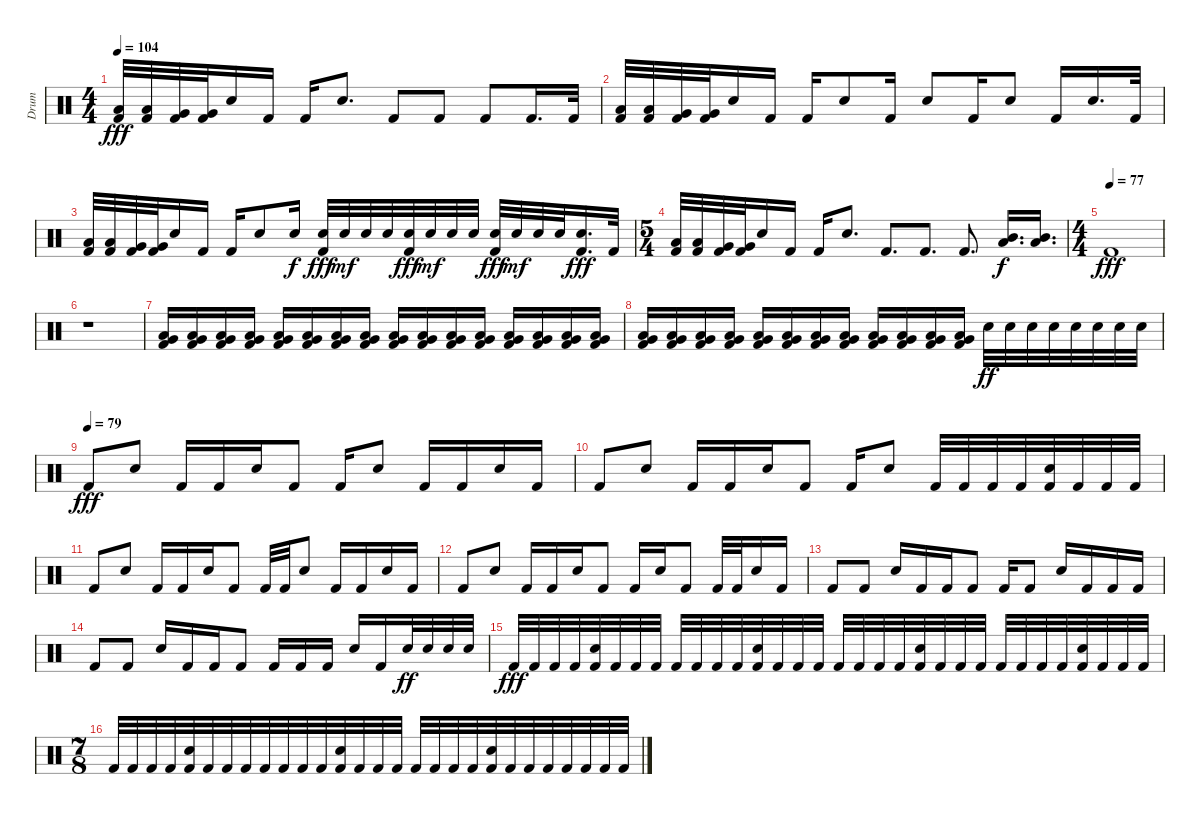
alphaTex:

\track ("Drum" "Drum") {instrument percussion}
\staff {score}
\articulation defaults
\ts (4 4)
\tempo 104
\clef neutral
\ks c
("Low Tom (hit)" "Kick (hit) 2").32{dy fff} ("Low Tom (hit)" "Kick (hit) 2").32 ("Very Low Tom (hit)" "Kick (hit) 2").32 ("Very Low Tom (hit)" "Kick (hit) 2").32 "Electric Snare (hit)".16 "Kick (hit) 2".16 "Kick (hit) 2".16 "Electric Snare (hit)".8{d} "Kick (hit) 2".8 "Kick (hit) 2".8 "Kick (hit) 2".8 "Kick (hit) 2".16{d} "Kick (hit) 2".32 |
("Low Tom (hit)" "Kick (hit) 2").32 ("Low Tom (hit)" "Kick (hit) 2").32 ("Very Low Tom (hit)" "Kick (hit) 2").32 ("Very Low Tom (hit)" "Kick (hit) 2").32 "Electric Snare (hit)".16 "Kick (hit) 2".16 "Kick (hit) 2".16 "Electric Snare (hit)".8 "Kick (hit) 2".16 "Electric Snare (hit)".8 "Kick (hit) 2".16 "Electric Snare (hit)".8 "Kick (hit) 2".16 "Electric Snare (hit)".16{d} "Kick (hit) 2".32 |
("Low Tom (hit)" "Kick (hit) 2").32 ("Low Tom (hit)" "Kick (hit) 2").32 ("Very Low Tom (hit)" "Kick (hit) 2").32 ("Very Low Tom (hit)" "Kick (hit) 2").32 "Electric Snare (hit)".16 "Kick (hit) 2".16 "Kick (hit) 2".16 "Electric Snare (hit)".8 "Electric Snare (hit)".16{dy f} ("Electric Snare (hit)" "Kick (hit) 2").32{dy fff} "Electric Snare (hit)".32{dy mf} "Electric Snare (hit)".32 "Electric Snare (hit)".32 ("Electric Snare (hit)" "Kick (hit) 2").32{dy fff} "Electric Snare (hit)".32{dy mf} "Electric Snare (hit)".32 "Electric Snare (hit)".32 ("Electric Snare (hit)" "Kick (hit) 2").32{dy fff} "Electric Snare (hit)".32{dy mf} "Electric Snare (hit)".32 "Electric Snare (hit)".32 ("Electric Snare (hit)" "Kick (hit) 2").16{d dy fff} "Kick (hit) 2".32 |
\ts (5 4)
("Low Tom (hit)" "Kick (hit) 2").32 ("Low Tom (hit)" "Kick (hit) 2").32 ("Very Low Tom (hit)" "Kick (hit) 2").32 ("Very Low Tom (hit)" "Kick (hit) 2").32 "Electric Snare (hit)".16 "Kick (hit) 2".16 "Kick (hit) 2".16 "Electric Snare (hit)".8{d} "Kick (hit) 2".8{d} "Kick (hit) 2".8{d} "Kick (hit) 2".8{d} ("Mid Tom (hit)" "Low Tom (hit)").16{d dy f} ("Mid Tom (hit)" "Low Tom (hit)").16{d} |
\ts (4 4)
\tempo (77)
"Kick (hit) 2".1{dy fff} |
r.1 |
("Low Tom (hit)" "Very Low Tom (hit)" "Kick (hit) 2").16 ("Low Tom (hit)" "Very Low Tom (hit)" "Kick (hit) 2").16 ("Low Tom (hit)" "Very Low Tom (hit)" "Kick (hit) 2").16 ("Low Tom (hit)" "Very Low Tom (hit)" "Kick (hit) 2").16 ("Low Tom (hit)" "Very Low Tom (hit)" "Kick (hit) 2").16 ("Low Tom (hit)" "Very Low Tom (hit)" "Kick (hit) 2").16 ("Low Tom (hit)" "Very Low Tom (hit)" "Kick (hit) 2").16 ("Low Tom (hit)" "Very Low Tom (hit)" "Kick (hit) 2").16 ("Low Tom (hit)" "Very Low Tom (hit)" "Kick (hit) 2").16 ("Low Tom (hit)" "Very Low Tom (hit)" "Kick (hit) 2").16 ("Low Tom (hit)" "Very Low Tom (hit)" "Kick (hit) 2").16 ("Low Tom (hit)" "Very Low Tom (hit)" "Kick (hit) 2").16 ("Low Tom (hit)" "Very Low Tom (hit)" "Kick (hit) 2").16 ("Low Tom (hit)" "Very Low Tom (hit)" "Kick (hit) 2").16 ("Low Tom (hit)" "Very Low Tom (hit)" "Kick (hit) 2").16 ("Low Tom (hit)" "Very Low Tom (hit)" "Kick (hit) 2").16 |
("Low Tom (hit)" "Very Low Tom (hit)" "Kick (hit) 2").16 ("Low Tom (hit)" "Very Low Tom (hit)" "Kick (hit) 2").16 ("Low Tom (hit)" "Very Low Tom (hit)" "Kick (hit) 2").16 ("Low Tom (hit)" "Very Low Tom (hit)" "Kick (hit) 2").16 ("Low Tom (hit)" "Very Low Tom (hit)" "Kick (hit) 2").16 ("Low Tom (hit)" "Very Low Tom (hit)" "Kick (hit) 2").16 ("Low Tom (hit)" "Very Low Tom (hit)" "Kick (hit) 2").16 ("Low Tom (hit)" "Very Low Tom (hit)" "Kick (hit) 2").16 ("Low Tom (hit)" "Very Low Tom (hit)" "Kick (hit) 2").16 ("Low Tom (hit)" "Very Low Tom (hit)" "Kick (hit) 2").16 ("Low Tom (hit)" "Very Low Tom (hit)" "Kick (hit) 2").16 ("Low Tom (hit)" "Very Low Tom (hit)" "Kick (hit) 2").16 "Electric Snare (hit)".32{dy ff} "Electric Snare (hit)".32 "Electric Snare (hit)".32 "Electric Snare (hit)".32 "Electric Snare (hit)".32 "Electric Snare (hit)".32 "Electric Snare (hit)".32 "Electric Snare (hit)".32 |
\tempo (79)
"Kick (hit) 2".8{dy fff} "Electric Snare (hit)".8 "Kick (hit) 2".16 "Kick (hit) 2".16 "Electric Snare (hit)".16 "Kick (hit) 2".8 "Kick (hit) 2".16 "Electric Snare (hit)".8 "Kick (hit) 2".16 "Kick (hit) 2".16 "Electric Snare (hit)".16 "Kick (hit) 2".16 |
"Kick (hit) 2".8 "Electric Snare (hit)".8 "Kick (hit) 2".16 "Kick (hit) 2".16 "Electric Snare (hit)".16 "Kick (hit) 2".8 "Kick (hit) 2".16 "Electric Snare (hit)".8 "Kick (hit) 2".32 "Kick (hit) 2".32 "Kick (hit) 2".32 "Kick (hit) 2".32 ("Electric Snare (hit)" "Kick (hit) 2").32 "Kick (hit) 2".32 "Kick (hit) 2".32 "Kick (hit) 2".32 |
"Kick (hit) 2".8 "Electric Snare (hit)".8 "Kick (hit) 2".16 "Kick (hit) 2".16 "Electric Snare (hit)".16 "Kick (hit) 2".8 "Kick (hit) 2".32 "Kick (hit) 2".32 "Electric Snare (hit)".8 "Kick (hit) 2".16 "Kick (hit) 2".16 "Electric Snare (hit)".16 "Kick (hit) 2".16 |
"Kick (hit) 2".8 "Electric Snare (hit)".8 "Kick (hit) 2".16 "Kick (hit) 2".16 "Electric Snare (hit)".16 "Kick (hit) 2".8 "Kick (hit) 2".16 "Electric Snare (hit)".16 "Kick (hit) 2".8 "Kick (hit) 2".32 "Kick (hit) 2".32 "Electric Snare (hit)".16 "Kick (hit) 2".16 |
"Kick (hit) 2".8 "Kick (hit) 2".8 "Electric Snare (hit)".16 "Kick (hit) 2".16 "Kick (hit) 2".16 "Kick (hit) 2".8 "Kick (hit) 2".16 "Kick (hit) 2".8 "Electric Snare (hit)".16 "Kick (hit) 2".16 "Kick (hit) 2".16 "Kick (hit) 2".16 |
"Kick (hit) 2".8 "Kick (hit) 2".8 "Electric Snare (hit)".16 "Kick (hit) 2".16 "Kick (hit) 2".16 "Kick (hit) 2".8 "Kick (hit) 2".16 "Kick (hit) 2".16 "Kick (hit) 2".16 "Electric Snare (hit)".16 "Kick (hit) 2".16 "Electric Snare (hit)".32{dy ff} "Electric Snare (hit)".32 "Electric Snare (hit)".32 "Electric Snare (hit)".32 |
"Kick (hit) 2".32{dy fff} "Kick (hit) 2".32 "Kick (hit) 2".32 "Kick (hit) 2".32 ("Electric Snare (hit)" "Kick (hit) 2").32 "Kick (hit) 2".32 "Kick (hit) 2".32 "Kick (hit) 2".32 "Kick (hit) 2".32 "Kick (hit) 2".32 "Kick (hit) 2".32 "Kick (hit) 2".32 ("Electric Snare (hit)" "Kick (hit) 2").32 "Kick (hit) 2".32 "Kick (hit) 2".32 "Kick (hit) 2".32 "Kick (hit) 2".32 "Kick (hit) 2".32 "Kick (hit) 2".32 "Kick (hit) 2".32 ("Electric Snare (hit)" "Kick (hit) 2").32 "Kick (hit) 2".32 "Kick (hit) 2".32 "Kick (hit) 2".32 "Kick (hit) 2".32 "Kick (hit) 2".32 "Kick (hit) 2".32 "Kick (hit) 2".32 ("Electric Snare (hit)" "Kick (hit) 2").32 "Kick (hit) 2".32 "Kick (hit) 2".32 "Kick (hit) 2".32 |
\ts (7 8)
"Kick (hit) 2".32 "Kick (hit) 2".32 "Kick (hit) 2".32 "Kick (hit) 2".32 ("Electric Snare (hit)" "Kick (hit) 2").32 "Kick (hit) 2".32 "Kick (hit) 2".32 "Kick (hit) 2".32 "Kick (hit) 2".32 "Kick (hit) 2".32 "Kick (hit) 2".32 "Kick (hit) 2".32 ("Electric Snare (hit)" "Kick (hit) 2").32 "Kick (hit) 2".32 "Kick (hit) 2".32 "Kick (hit) 2".32 "Kick (hit) 2".32 "Kick (hit) 2".32 "Kick (hit) 2".32 "Kick (hit) 2".32 ("Electric Snare (hit)" "Kick (hit) 2").32 "Kick (hit) 2".32 "Kick (hit) 2".32 "Kick (hit) 2".32 "Kick (hit) 2".32 "Kick (hit) 2".32 "Kick (hit) 2".32 "Kick (hit) 2".32
